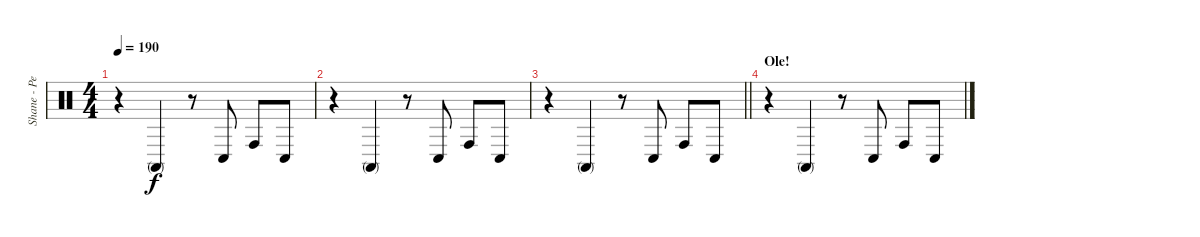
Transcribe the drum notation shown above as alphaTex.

\track ("Shane - Percussion" "Shane - Pe") {instrument percussion}
\staff {score}
\articulation defaults
\ts (4 4)
\tempo 190
\clef neutral
\ks c
r.4{dy f} "Conga high (mute)".4 r.8 "Conga low (hit)".8 "Conga high (hit)".8 "Conga low (hit)".8 |
r.4 "Conga high (mute)".4 r.8 "Conga low (hit)".8 "Conga high (hit)".8 "Conga low (hit)".8 |
\barLineRight lightlight
r.4 "Conga high (mute)".4 r.8 "Conga low (hit)".8 "Conga high (hit)".8 "Conga low (hit)".8 |
\section ("" "Ole!")
r.4 "Conga high (mute)".4 r.8 "Conga low (hit)".8 "Conga high (hit)".8 "Conga low (hit)".8
